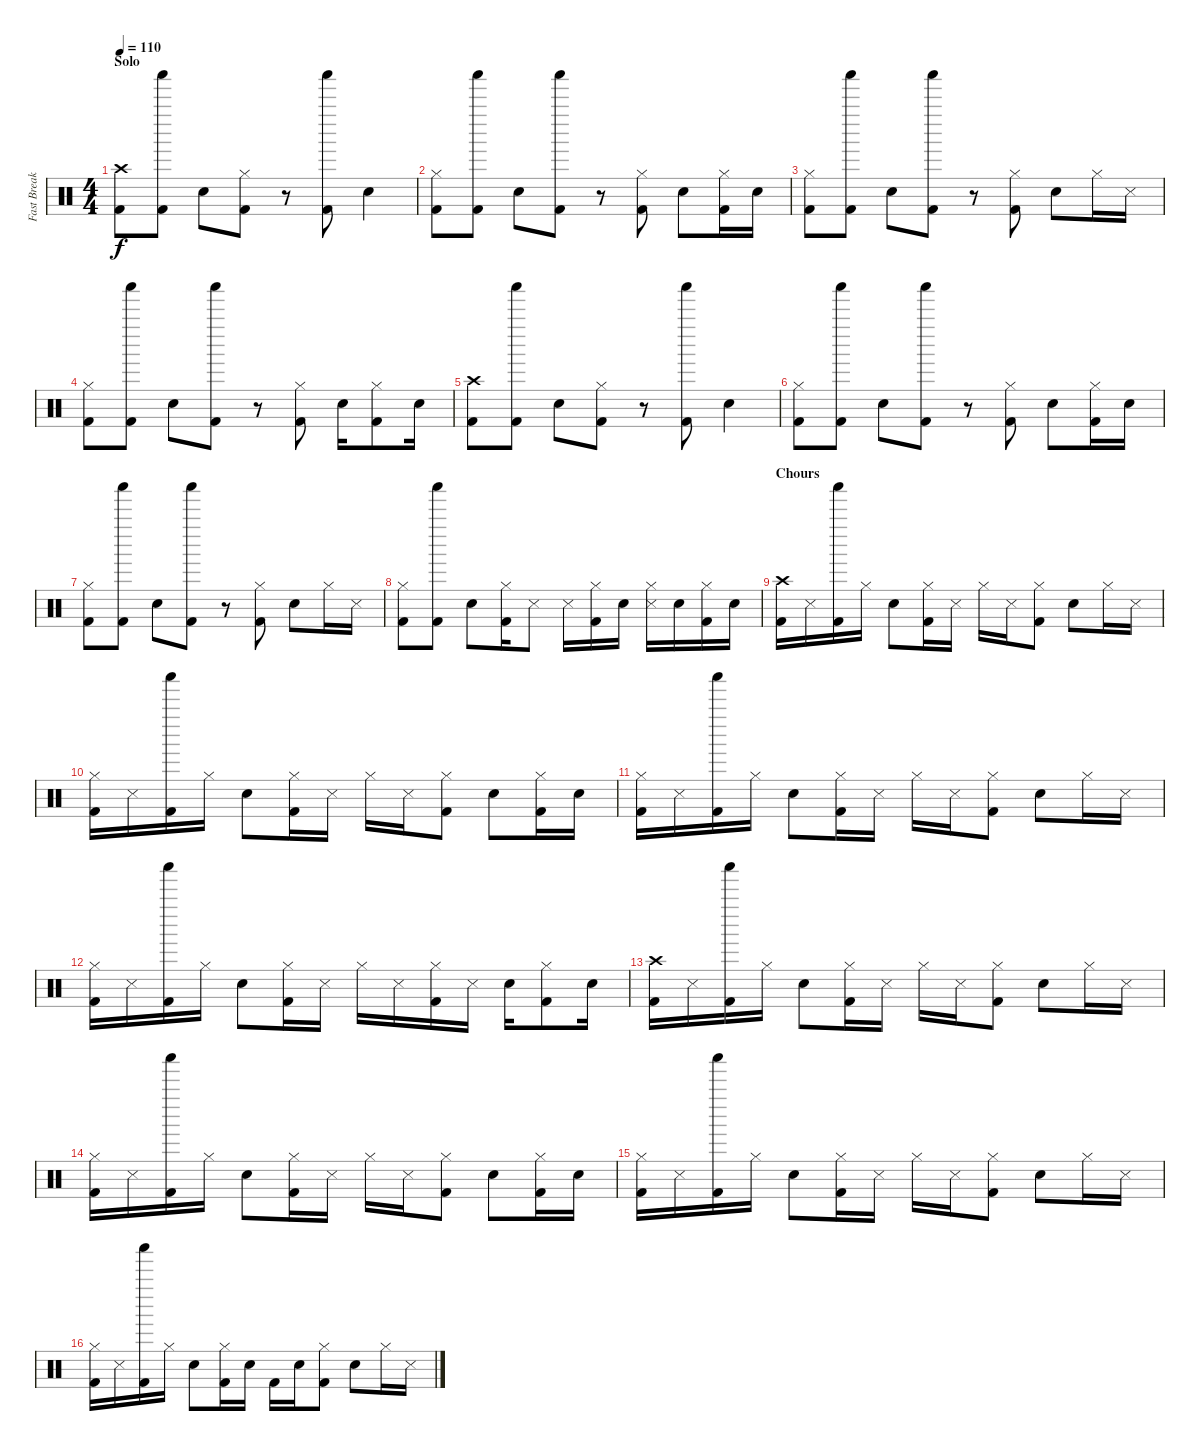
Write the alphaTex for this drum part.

\track ("Fast Break Drums" "Fast Break") {instrument percussion}
\staff {score}
\articulation defaults
\ts (4 4)
\section ("" "Solo")
\tempo 110
\clef neutral
\ks c
("Kick (hit) 2" "Crash high (hit)").8{dy f} ("Kick (hit) 2" "Shaker (hit)").8 "Snare (hit) 2".8 ("Kick (hit) 2" "Hi-Hat (closed)").8 r.8 ("Kick (hit) 2" "Shaker (hit)").8 "Snare (hit) 2".4 |
("Kick (hit) 2" "Hi-Hat (closed)").8 ("Kick (hit) 2" "Shaker (hit)").8 "Snare (hit) 2".8 ("Kick (hit) 2" "Shaker (hit)").8 r.8 ("Kick (hit) 2" "Hi-Hat (closed)").8 "Snare (hit) 2".8 ("Kick (hit) 2" "Hi-Hat (closed)").16 "Snare (hit) 2".16 |
("Kick (hit) 2" "Hi-Hat (closed)").8 ("Kick (hit) 2" "Shaker (hit)").8 "Snare (hit) 2".8 ("Kick (hit) 2" "Shaker (hit)").8 r.8 ("Kick (hit) 2" "Hi-Hat (closed)").8 "Snare (hit) 2".8 "Hi-Hat (closed)".16 "Snare (side stick) 3".16 |
("Kick (hit) 2" "Hi-Hat (closed)").8 ("Kick (hit) 2" "Shaker (hit)").8 "Snare (hit) 2".8 ("Kick (hit) 2" "Shaker (hit)").8 r.8 ("Kick (hit) 2" "Hi-Hat (closed)").8 "Snare (hit) 2".16 ("Kick (hit) 2" "Hi-Hat (closed)").8 "Snare (hit) 2".16 |
("Kick (hit) 2" "Crash high (hit)").8 ("Kick (hit) 2" "Shaker (hit)").8 "Snare (hit) 2".8 ("Kick (hit) 2" "Hi-Hat (closed)").8 r.8 ("Kick (hit) 2" "Shaker (hit)").8 "Snare (hit) 2".4 |
("Kick (hit) 2" "Hi-Hat (closed)").8 ("Kick (hit) 2" "Shaker (hit)").8 "Snare (hit) 2".8 ("Kick (hit) 2" "Shaker (hit)").8 r.8 ("Kick (hit) 2" "Hi-Hat (closed)").8 "Snare (hit) 2".8 ("Kick (hit) 2" "Hi-Hat (closed)").16 "Snare (hit) 2".16 |
("Kick (hit) 2" "Hi-Hat (closed)").8 ("Kick (hit) 2" "Shaker (hit)").8 "Snare (hit) 2".8 ("Kick (hit) 2" "Shaker (hit)").8 r.8 ("Kick (hit) 2" "Hi-Hat (closed)").8 "Snare (hit) 2".8 "Hi-Hat (closed)".16 "Snare (side stick) 3".16 |
("Kick (hit) 2" "Hi-Hat (closed)").8 ("Kick (hit) 2" "Shaker (hit)").8 "Snare (hit) 2".8 ("Kick (hit) 2" "Hi-Hat (closed)").16 "Snare (side stick) 3".8 "Snare (side stick) 3".16 ("Kick (hit) 2" "Hi-Hat (closed)").16 "Snare (hit) 2".16 ("Snare (side stick) 3" "Hi-Hat (closed)").16 "Snare (hit) 2".16 ("Kick (hit) 2" "Hi-Hat (closed)").16 "Snare (hit) 2".16 |
\section ("" "Chours")
("Kick (hit) 2" "Crash high (hit)").16 "Snare (side stick) 3".16 ("Kick (hit) 2" "Shaker (hit)").16 "Hi-Hat (closed)".16 "Snare (hit) 2".8 ("Kick (hit) 2" "Hi-Hat (closed)").16 "Snare (side stick) 3".16 "Hi-Hat (closed)".16 "Snare (side stick) 3".16 ("Kick (hit) 2" "Hi-Hat (closed)").8 "Snare (hit) 2".8 "Hi-Hat (closed)".16 "Snare (side stick) 3".16 |
("Kick (hit) 2" "Hi-Hat (closed)").16 "Snare (side stick) 3".16 ("Kick (hit) 2" "Shaker (hit)").16 "Hi-Hat (closed)".16 "Snare (hit) 2".8 ("Kick (hit) 2" "Hi-Hat (closed)").16 "Snare (side stick) 3".16 "Hi-Hat (closed)".16 "Snare (side stick) 3".16 ("Kick (hit) 2" "Hi-Hat (closed)").8 "Snare (hit) 2".8 ("Kick (hit) 2" "Hi-Hat (closed)").16 "Snare (hit) 2".16 |
("Kick (hit) 2" "Hi-Hat (closed)").16 "Snare (side stick) 3".16 ("Kick (hit) 2" "Shaker (hit)").16 "Hi-Hat (closed)".16 "Snare (hit) 2".8 ("Kick (hit) 2" "Hi-Hat (closed)").16 "Snare (side stick) 3".16 "Hi-Hat (closed)".16 "Snare (side stick) 3".16 ("Kick (hit) 2" "Hi-Hat (closed)").8 "Snare (hit) 2".8 "Hi-Hat (closed)".16 "Snare (side stick) 3".16 |
("Kick (hit) 2" "Hi-Hat (closed)").16 "Snare (side stick) 3".16 ("Kick (hit) 2" "Shaker (hit)").16 "Hi-Hat (closed)".16 "Snare (hit) 2".8 ("Kick (hit) 2" "Hi-Hat (closed)").16 "Snare (side stick) 3".16 "Hi-Hat (closed)".16 "Snare (side stick) 3".16 ("Kick (hit) 2" "Hi-Hat (closed)").16 "Snare (side stick) 3".16 "Snare (hit) 2".16 ("Kick (hit) 2" "Hi-Hat (closed)").8 "Snare (hit) 2".16 |
("Kick (hit) 2" "Crash high (hit)").16 "Snare (side stick) 3".16 ("Kick (hit) 2" "Shaker (hit)").16 "Hi-Hat (closed)".16 "Snare (hit) 2".8 ("Kick (hit) 2" "Hi-Hat (closed)").16 "Snare (side stick) 3".16 "Hi-Hat (closed)".16 "Snare (side stick) 3".16 ("Kick (hit) 2" "Hi-Hat (closed)").8 "Snare (hit) 2".8 "Hi-Hat (closed)".16 "Snare (side stick) 3".16 |
("Kick (hit) 2" "Hi-Hat (closed)").16 "Snare (side stick) 3".16 ("Kick (hit) 2" "Shaker (hit)").16 "Hi-Hat (closed)".16 "Snare (hit) 2".8 ("Kick (hit) 2" "Hi-Hat (closed)").16 "Snare (side stick) 3".16 "Hi-Hat (closed)".16 "Snare (side stick) 3".16 ("Kick (hit) 2" "Hi-Hat (closed)").8 "Snare (hit) 2".8 ("Kick (hit) 2" "Hi-Hat (closed)").16 "Snare (hit) 2".16 |
("Kick (hit) 2" "Hi-Hat (closed)").16 "Snare (side stick) 3".16 ("Kick (hit) 2" "Shaker (hit)").16 "Hi-Hat (closed)".16 "Snare (hit) 2".8 ("Kick (hit) 2" "Hi-Hat (closed)").16 "Snare (side stick) 3".16 "Hi-Hat (closed)".16 "Snare (side stick) 3".16 ("Kick (hit) 2" "Hi-Hat (closed)").8 "Snare (hit) 2".8 "Hi-Hat (closed)".16 "Snare (side stick) 3".16 |
("Kick (hit) 2" "Hi-Hat (closed)").16 "Snare (side stick) 3".16 ("Kick (hit) 2" "Shaker (hit)").16 "Hi-Hat (closed)".16 "Snare (hit) 2".8 ("Kick (hit) 2" "Hi-Hat (closed)").16 "Snare (hit) 2".16 "Kick (hit) 2".16 "Snare (hit) 2".16 ("Kick (hit) 2" "Hi-Hat (closed)").8 "Snare (hit) 2".8 "Hi-Hat (closed)".16 "Snare (side stick) 3".16
